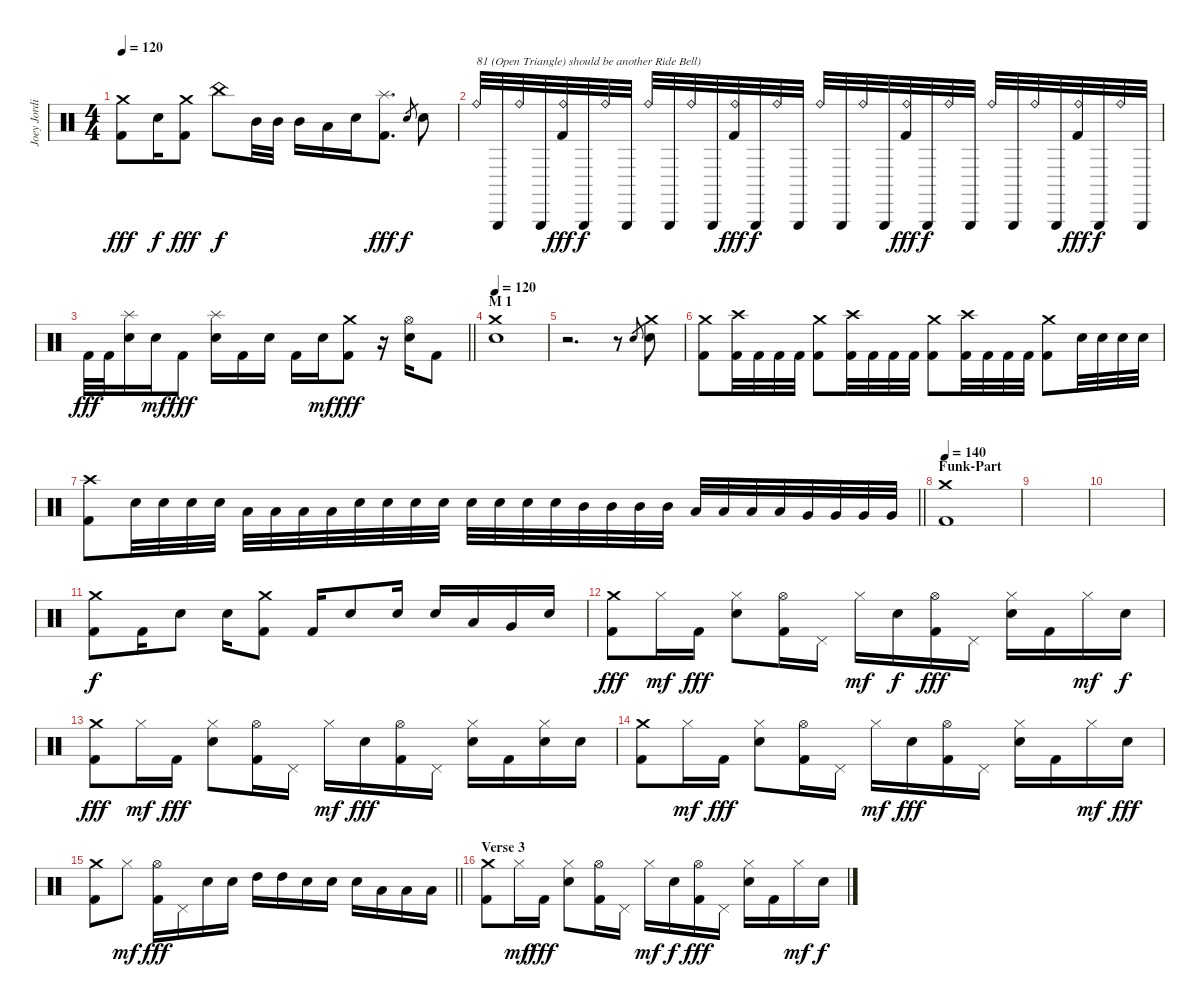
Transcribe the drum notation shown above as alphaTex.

\track ("Joey Jordison" "Joey Jordi") {instrument percussion}
\staff {score}
\articulation defaults
\ts (4 4)
\tempo 120
\clef neutral
\ks c
("Crash medium (hit)" "Kick (hit) 2").8{dy fff} "Electric Snare (hit)".16{dy f} ("Crash medium (hit)" "Kick (hit) 2").8{dy fff} "China (hit)".8{dy f} "Mid Tom (hit)".32 "Mid Tom (hit)".32 "Mid Tom (hit)".16 "Low Tom (hit)".16 "Electric Snare (hit)".16 ("Splash (hit)" "Kick (hit) 2").8{d dy fff} "Electric Snare (hit)".8{gr dy f} "Electric Snare (hit)".8 |
"Ride (bell)".32{txt "81 (Open Triangle) should be another Ride Bell)"} "Triangle (hit)".32 "Ride (bell)".32 "Triangle (hit)".32 ("Ride (bell)" "Kick (hit) 2").32{dy fff} "Triangle (hit)".32{dy f} "Ride (bell)".32 "Triangle (hit)".32 "Ride (bell)".32 "Triangle (hit)".32 "Ride (bell)".32 "Triangle (hit)".32 ("Ride (bell)" "Kick (hit) 2").32{dy fff} "Triangle (hit)".32{dy f} "Ride (bell)".32 "Triangle (hit)".32 "Ride (bell)".32 "Triangle (hit)".32 "Ride (bell)".32 "Triangle (hit)".32 ("Ride (bell)" "Kick (hit) 2").32{dy fff} "Triangle (hit)".32{dy f} "Ride (bell)".32 "Triangle (hit)".32 "Ride (bell)".32 "Triangle (hit)".32 "Ride (bell)".32 "Triangle (hit)".32 ("Ride (bell)" "Kick (hit) 2").32{dy fff} "Triangle (hit)".32{dy f} "Ride (bell)".32 "Triangle (hit)".32 |
\barLineRight lightlight "Kick (hit) 2".32{dy fff} "Kick (hit) 2".32
("Splash (hit)" "Electric Snare (hit)").16 "Electric Snare (hit)".16{dy mf} "Kick (hit) 2".8{dy fff} ("Splash (hit)" "Electric Snare (hit)").16 "Kick (hit) 2".16 "Electric Snare (hit)".16 "Kick (hit) 2".16 "Electric Snare (hit)".16{dy mf} ("Crash medium (hit)" "Kick (hit) 2").8{dy fff} r.16 ("Hi-Hat (open)" "Electric Snare (hit)").16 "Kick (hit) 2".8 |
\section ("" "M 1")
\tempo 120
("Crash medium (hit)" "Electric Snare (hit)").1 |
r.2{d} r.8 "Electric Snare (hit)".8{gr} ("Crash medium (hit)" "Electric Snare (hit)").8 |
("Crash medium (hit)" "Kick (hit) 2").8 ("Crash high (hit)" "Kick (hit) 2").32 "Kick (hit) 2".32 "Kick (hit) 2".32 "Kick (hit) 2".32 ("Crash medium (hit)" "Kick (hit) 2").8 ("Crash high (hit)" "Kick (hit) 2").32 "Kick (hit) 2".32 "Kick (hit) 2".32 "Kick (hit) 2".32 ("Crash medium (hit)" "Kick (hit) 2").8 ("Crash high (hit)" "Kick (hit) 2").32 "Kick (hit) 2".32 "Kick (hit) 2".32 "Kick (hit) 2".32 ("Crash medium (hit)" "Kick (hit) 2").8 "Electric Snare (hit)".32 "Electric Snare (hit)".32 "Electric Snare (hit)".32 "Electric Snare (hit)".32 |
\barLineRight lightlight
("Crash high (hit)" "Kick (hit) 2").8 "Electric Snare (hit)".32 "Electric Snare (hit)".32 "Electric Snare (hit)".32 "Electric Snare (hit)".32 "Low Tom (hit)".32 "Low Tom (hit)".32 "Low Tom (hit)".32 "Low Tom (hit)".32 "Electric Snare (hit)".32 "Electric Snare (hit)".32 "Electric Snare (hit)".32 "Electric Snare (hit)".32 "Electric Snare (hit)".32 "Electric Snare (hit)".32 "Electric Snare (hit)".32 "Electric Snare (hit)".32 "Mid Tom (hit)".32 "Mid Tom (hit)".32 "Mid Tom (hit)".32 "Mid Tom (hit)".32 "Low Tom (hit)".32 "Low Tom (hit)".32 "Low Tom (hit)".32 "Low Tom (hit)".32 "Very Low Tom (hit)".32 "Very Low Tom (hit)".32 "Very Low Tom (hit)".32 "Very Low Tom (hit)".32 |
\section ("" "Funk-Part")
\tempo 140
("Crash medium (hit)" "Kick (hit) 2").1 |
|
|
("Crash medium (hit)" "Kick (hit) 2").8{dy f volume 10} "Kick (hit) 2".16 "Electric Snare (hit)".8 "Electric Snare (hit)".16 ("Crash medium (hit)" "Kick (hit) 2").8 "Kick (hit) 2".16 "Electric Snare (hit)".8 "Electric Snare (hit)".16 "Electric Snare (hit)".16 "Low Tom (hit)".16 "Very Low Tom (hit)".16 "Electric Snare (hit)".16 |
("Crash medium (hit)" "Kick (hit) 2").8{dy fff} "Hi-Hat (closed)".16{dy mf} "Kick (hit) 2".16{dy fff} ("Hi-Hat (closed)" "Electric Snare (hit)").8 ("Hi-Hat (open)" "Kick (hit) 2").16 "Pedal Hi-Hat (hit)".16 "Hi-Hat (closed)".16{dy mf} "Electric Snare (hit)".16{dy f} ("Hi-Hat (open)" "Kick (hit) 2").16{dy fff} "Pedal Hi-Hat (hit)".16 ("Hi-Hat (closed)" "Electric Snare (hit)").16 "Kick (hit) 2".16 "Hi-Hat (closed)".16{dy mf} "Electric Snare (hit)".16{dy f} |
("Crash medium (hit)" "Kick (hit) 2").8{dy fff} "Hi-Hat (closed)".16{dy mf} "Kick (hit) 2".16{dy fff} ("Hi-Hat (closed)" "Electric Snare (hit)").8 ("Hi-Hat (open)" "Kick (hit) 2").16 "Pedal Hi-Hat (hit)".16 "Hi-Hat (closed)".16{dy mf} "Electric Snare (hit)".16{dy fff} ("Hi-Hat (open)" "Kick (hit) 2").16 "Pedal Hi-Hat (hit)".16 ("Hi-Hat (closed)" "Electric Snare (hit)").16 "Kick (hit) 2".16 ("Hi-Hat (closed)" "Electric Snare (hit)").16 "Electric Snare (hit)".16 |
("Crash medium (hit)" "Kick (hit) 2").8 "Hi-Hat (closed)".16{dy mf} "Kick (hit) 2".16{dy fff} ("Hi-Hat (closed)" "Electric Snare (hit)").8 ("Hi-Hat (open)" "Kick (hit) 2").16 "Pedal Hi-Hat (hit)".16 "Hi-Hat (closed)".16{dy mf} "Electric Snare (hit)".16{dy fff} ("Hi-Hat (open)" "Kick (hit) 2").16 "Pedal Hi-Hat (hit)".16 ("Hi-Hat (closed)" "Electric Snare (hit)").16 "Kick (hit) 2".16 "Hi-Hat (closed)".16{dy mf} "Electric Snare (hit)".16{dy fff} |
\barLineRight lightlight
("Crash medium (hit)" "Kick (hit) 2").8 "Hi-Hat (closed)".8{dy mf} ("Hi-Hat (open)" "Kick (hit) 2").16{dy fff} "Pedal Hi-Hat (hit)".16 "Electric Snare (hit)".16 "Electric Snare (hit)".16 "High Tom (hit)".16 "High Tom (hit)".16 "Electric Snare (hit)".16 "Electric Snare (hit)".16 "Electric Snare (hit)".16 "Low Tom (hit)".16 "Low Tom (hit)".16 "Low Tom (hit)".16 |
\section ("" "Verse 3")
("Crash medium (hit)" "Kick (hit) 2").8 "Hi-Hat (closed)".16{dy mf} "Kick (hit) 2".16{dy fff} ("Hi-Hat (closed)" "Electric Snare (hit)").8 ("Hi-Hat (open)" "Kick (hit) 2").16 "Pedal Hi-Hat (hit)".16 "Hi-Hat (closed)".16{dy mf} "Electric Snare (hit)".16{dy f} ("Hi-Hat (open)" "Kick (hit) 2").16{dy fff} "Pedal Hi-Hat (hit)".16 ("Hi-Hat (closed)" "Electric Snare (hit)").16 "Kick (hit) 2".16 "Hi-Hat (closed)".16{dy mf} "Electric Snare (hit)".16{dy f}
